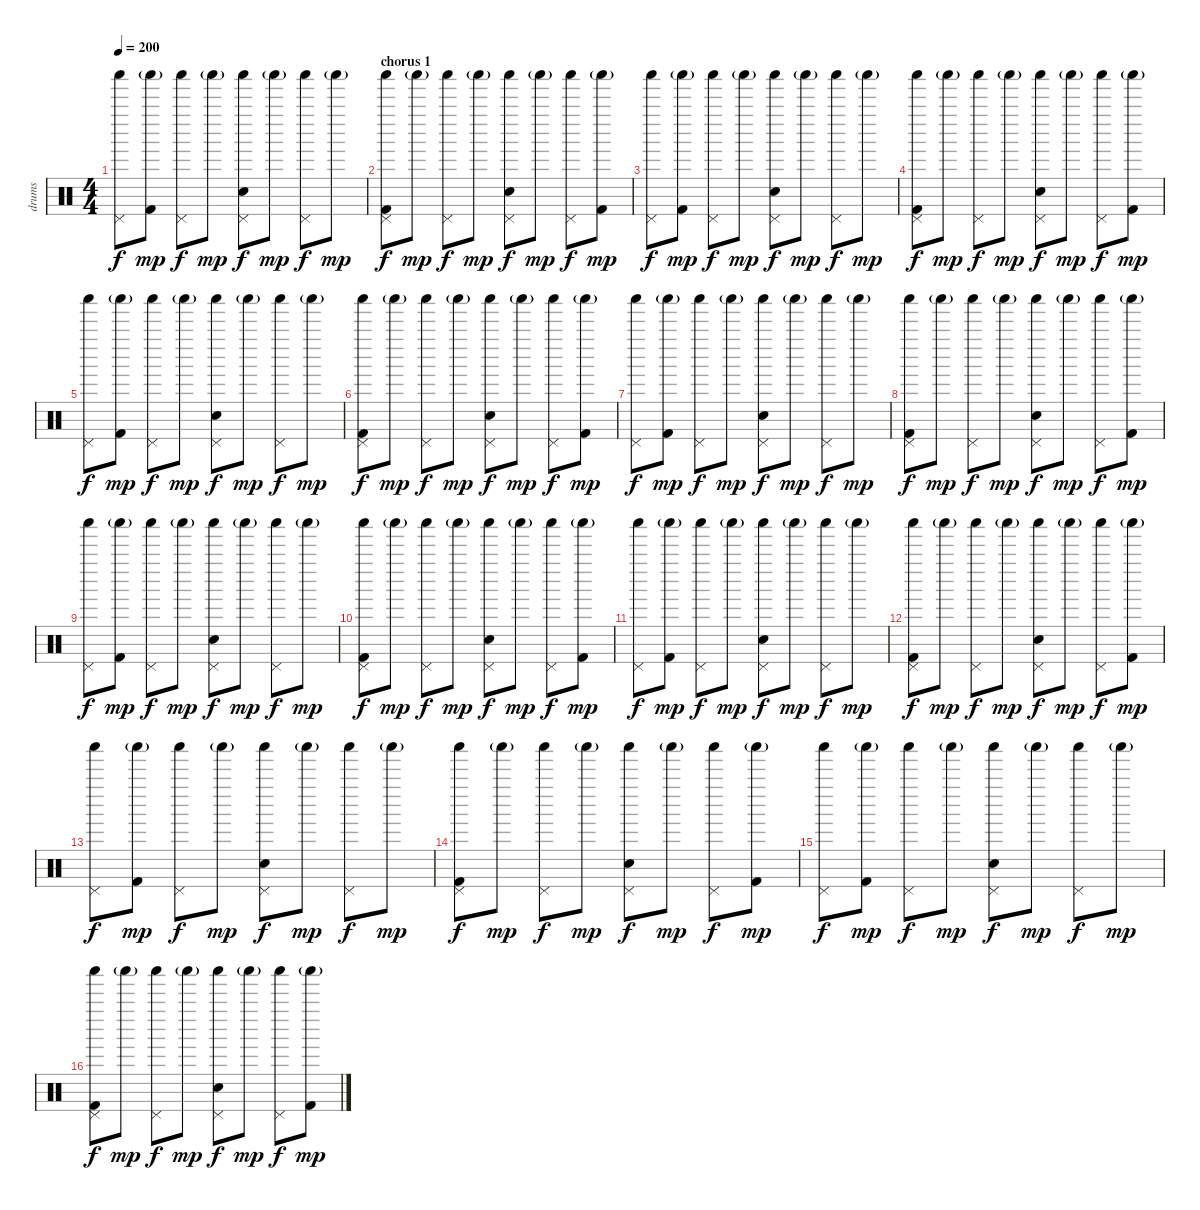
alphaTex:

\track ("drums" "drums") {instrument percussion}
\staff {score}
\articulation defaults
\ts (4 4)
\tempo 200
\clef neutral
\ks c
("Shaker (hit)" "Pedal Hi-Hat (hit)").8{dy f} ("Kick (hit) 2" "Shaker (hit)"{g}).8{dy mp} ("Shaker (hit)" "Pedal Hi-Hat (hit)").8{dy f} "Shaker (hit)"{g}.8{dy mp} ("Electric Snare (hit)" "Shaker (hit)" "Pedal Hi-Hat (hit)").8{dy f} "Shaker (hit)"{g}.8{dy mp} ("Shaker (hit)" "Pedal Hi-Hat (hit)").8{dy f} "Shaker (hit)"{g}.8{dy mp} |
\section ("" "chorus 1")
("Kick (hit) 2" "Shaker (hit)" "Pedal Hi-Hat (hit)").8{dy f} "Shaker (hit)"{g}.8{dy mp} ("Shaker (hit)" "Pedal Hi-Hat (hit)").8{dy f} "Shaker (hit)"{g}.8{dy mp} ("Electric Snare (hit)" "Shaker (hit)" "Pedal Hi-Hat (hit)").8{dy f} "Shaker (hit)"{g}.8{dy mp} ("Shaker (hit)" "Pedal Hi-Hat (hit)").8{dy f} ("Kick (hit) 2" "Shaker (hit)"{g}).8{dy mp} |
("Shaker (hit)" "Pedal Hi-Hat (hit)").8{dy f} ("Kick (hit) 2" "Shaker (hit)"{g}).8{dy mp} ("Shaker (hit)" "Pedal Hi-Hat (hit)").8{dy f} "Shaker (hit)"{g}.8{dy mp} ("Electric Snare (hit)" "Shaker (hit)" "Pedal Hi-Hat (hit)").8{dy f} "Shaker (hit)"{g}.8{dy mp} ("Shaker (hit)" "Pedal Hi-Hat (hit)").8{dy f} "Shaker (hit)"{g}.8{dy mp} |
("Kick (hit) 2" "Shaker (hit)" "Pedal Hi-Hat (hit)").8{dy f} "Shaker (hit)"{g}.8{dy mp} ("Shaker (hit)" "Pedal Hi-Hat (hit)").8{dy f} "Shaker (hit)"{g}.8{dy mp} ("Electric Snare (hit)" "Shaker (hit)" "Pedal Hi-Hat (hit)").8{dy f} "Shaker (hit)"{g}.8{dy mp} ("Shaker (hit)" "Pedal Hi-Hat (hit)").8{dy f} ("Kick (hit) 2" "Shaker (hit)"{g}).8{dy mp} |
("Shaker (hit)" "Pedal Hi-Hat (hit)").8{dy f} ("Kick (hit) 2" "Shaker (hit)"{g}).8{dy mp} ("Shaker (hit)" "Pedal Hi-Hat (hit)").8{dy f} "Shaker (hit)"{g}.8{dy mp} ("Electric Snare (hit)" "Shaker (hit)" "Pedal Hi-Hat (hit)").8{dy f} "Shaker (hit)"{g}.8{dy mp} ("Shaker (hit)" "Pedal Hi-Hat (hit)").8{dy f} "Shaker (hit)"{g}.8{dy mp} |
("Kick (hit) 2" "Shaker (hit)" "Pedal Hi-Hat (hit)").8{dy f} "Shaker (hit)"{g}.8{dy mp} ("Shaker (hit)" "Pedal Hi-Hat (hit)").8{dy f} "Shaker (hit)"{g}.8{dy mp} ("Electric Snare (hit)" "Shaker (hit)" "Pedal Hi-Hat (hit)").8{dy f} "Shaker (hit)"{g}.8{dy mp} ("Shaker (hit)" "Pedal Hi-Hat (hit)").8{dy f} ("Kick (hit) 2" "Shaker (hit)"{g}).8{dy mp} |
("Shaker (hit)" "Pedal Hi-Hat (hit)").8{dy f} ("Kick (hit) 2" "Shaker (hit)"{g}).8{dy mp} ("Shaker (hit)" "Pedal Hi-Hat (hit)").8{dy f} "Shaker (hit)"{g}.8{dy mp} ("Electric Snare (hit)" "Shaker (hit)" "Pedal Hi-Hat (hit)").8{dy f} "Shaker (hit)"{g}.8{dy mp} ("Shaker (hit)" "Pedal Hi-Hat (hit)").8{dy f} "Shaker (hit)"{g}.8{dy mp} |
("Kick (hit) 2" "Shaker (hit)" "Pedal Hi-Hat (hit)").8{dy f} "Shaker (hit)"{g}.8{dy mp} ("Shaker (hit)" "Pedal Hi-Hat (hit)").8{dy f} "Shaker (hit)"{g}.8{dy mp} ("Electric Snare (hit)" "Shaker (hit)" "Pedal Hi-Hat (hit)").8{dy f} "Shaker (hit)"{g}.8{dy mp} ("Shaker (hit)" "Pedal Hi-Hat (hit)").8{dy f} ("Kick (hit) 2" "Shaker (hit)"{g}).8{dy mp} |
("Shaker (hit)" "Pedal Hi-Hat (hit)").8{dy f} ("Kick (hit) 2" "Shaker (hit)"{g}).8{dy mp} ("Shaker (hit)" "Pedal Hi-Hat (hit)").8{dy f} "Shaker (hit)"{g}.8{dy mp} ("Electric Snare (hit)" "Shaker (hit)" "Pedal Hi-Hat (hit)").8{dy f} "Shaker (hit)"{g}.8{dy mp} ("Shaker (hit)" "Pedal Hi-Hat (hit)").8{dy f} "Shaker (hit)"{g}.8{dy mp} |
("Kick (hit) 2" "Shaker (hit)" "Pedal Hi-Hat (hit)").8{dy f} "Shaker (hit)"{g}.8{dy mp} ("Shaker (hit)" "Pedal Hi-Hat (hit)").8{dy f} "Shaker (hit)"{g}.8{dy mp} ("Electric Snare (hit)" "Shaker (hit)" "Pedal Hi-Hat (hit)").8{dy f} "Shaker (hit)"{g}.8{dy mp} ("Shaker (hit)" "Pedal Hi-Hat (hit)").8{dy f} ("Kick (hit) 2" "Shaker (hit)"{g}).8{dy mp} |
("Shaker (hit)" "Pedal Hi-Hat (hit)").8{dy f} ("Kick (hit) 2" "Shaker (hit)"{g}).8{dy mp} ("Shaker (hit)" "Pedal Hi-Hat (hit)").8{dy f} "Shaker (hit)"{g}.8{dy mp} ("Electric Snare (hit)" "Shaker (hit)" "Pedal Hi-Hat (hit)").8{dy f} "Shaker (hit)"{g}.8{dy mp} ("Shaker (hit)" "Pedal Hi-Hat (hit)").8{dy f} "Shaker (hit)"{g}.8{dy mp} |
("Kick (hit) 2" "Shaker (hit)" "Pedal Hi-Hat (hit)").8{dy f} "Shaker (hit)"{g}.8{dy mp} ("Shaker (hit)" "Pedal Hi-Hat (hit)").8{dy f} "Shaker (hit)"{g}.8{dy mp} ("Electric Snare (hit)" "Shaker (hit)" "Pedal Hi-Hat (hit)").8{dy f} "Shaker (hit)"{g}.8{dy mp} ("Shaker (hit)" "Pedal Hi-Hat (hit)").8{dy f} ("Kick (hit) 2" "Shaker (hit)"{g}).8{dy mp} |
("Shaker (hit)" "Pedal Hi-Hat (hit)").8{dy f} ("Kick (hit) 2" "Shaker (hit)"{g}).8{dy mp} ("Shaker (hit)" "Pedal Hi-Hat (hit)").8{dy f} "Shaker (hit)"{g}.8{dy mp} ("Electric Snare (hit)" "Shaker (hit)" "Pedal Hi-Hat (hit)").8{dy f} "Shaker (hit)"{g}.8{dy mp} ("Shaker (hit)" "Pedal Hi-Hat (hit)").8{dy f} "Shaker (hit)"{g}.8{dy mp} |
("Kick (hit) 2" "Shaker (hit)" "Pedal Hi-Hat (hit)").8{dy f} "Shaker (hit)"{g}.8{dy mp} ("Shaker (hit)" "Pedal Hi-Hat (hit)").8{dy f} "Shaker (hit)"{g}.8{dy mp} ("Electric Snare (hit)" "Shaker (hit)" "Pedal Hi-Hat (hit)").8{dy f} "Shaker (hit)"{g}.8{dy mp} ("Shaker (hit)" "Pedal Hi-Hat (hit)").8{dy f} ("Kick (hit) 2" "Shaker (hit)"{g}).8{dy mp} |
("Shaker (hit)" "Pedal Hi-Hat (hit)").8{dy f} ("Kick (hit) 2" "Shaker (hit)"{g}).8{dy mp} ("Shaker (hit)" "Pedal Hi-Hat (hit)").8{dy f} "Shaker (hit)"{g}.8{dy mp} ("Electric Snare (hit)" "Shaker (hit)" "Pedal Hi-Hat (hit)").8{dy f} "Shaker (hit)"{g}.8{dy mp} ("Shaker (hit)" "Pedal Hi-Hat (hit)").8{dy f} "Shaker (hit)"{g}.8{dy mp} |
("Kick (hit) 2" "Shaker (hit)" "Pedal Hi-Hat (hit)").8{dy f} "Shaker (hit)"{g}.8{dy mp} ("Shaker (hit)" "Pedal Hi-Hat (hit)").8{dy f} "Shaker (hit)"{g}.8{dy mp} ("Electric Snare (hit)" "Shaker (hit)" "Pedal Hi-Hat (hit)").8{dy f} "Shaker (hit)"{g}.8{dy mp} ("Shaker (hit)" "Pedal Hi-Hat (hit)").8{dy f} ("Kick (hit) 2" "Shaker (hit)"{g}).8{dy mp}
